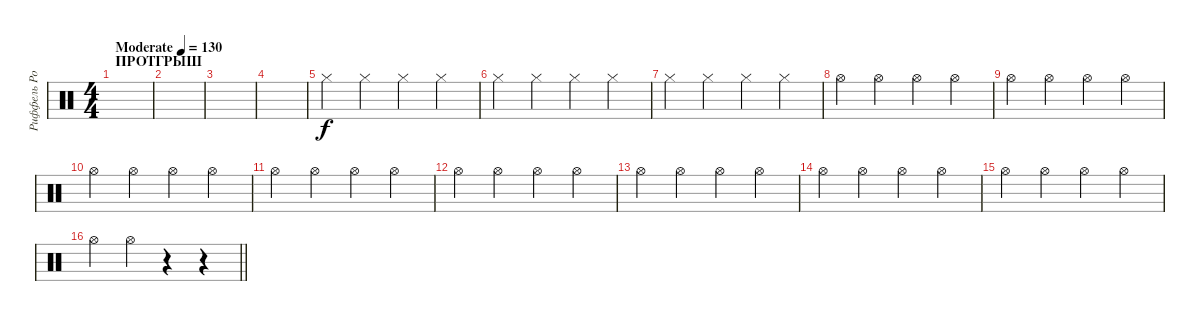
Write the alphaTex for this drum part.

\track ("Риффель Роман(хэты)" "Риффель Ро") {instrument percussion}
\staff {score}
\articulation defaults
\ts (4 4)
\section ("" "ПРОТГРЫШ")
\tempo (130 "Moderate")
\clef neutral
\ks c
|
|
|
|
"Hi-Hat (closed)".4 "Hi-Hat (closed)".4 "Hi-Hat (closed)".4 "Hi-Hat (closed)".4 |
"Hi-Hat (closed)".4 "Hi-Hat (closed)".4 "Hi-Hat (closed)".4 "Hi-Hat (closed)".4 |
"Hi-Hat (closed)".4 "Hi-Hat (closed)".4 "Hi-Hat (closed)".4 "Hi-Hat (closed)".4 |
"Hi-Hat (open)".4 "Hi-Hat (open)".4 "Hi-Hat (open)".4 "Hi-Hat (open)".4 |
"Hi-Hat (open)".4 "Hi-Hat (open)".4 "Hi-Hat (open)".4 "Hi-Hat (open)".4 |
"Hi-Hat (open)".4 "Hi-Hat (open)".4 "Hi-Hat (open)".4 "Hi-Hat (open)".4 |
"Hi-Hat (open)".4 "Hi-Hat (open)".4 "Hi-Hat (open)".4 "Hi-Hat (open)".4 |
"Hi-Hat (open)".4 "Hi-Hat (open)".4 "Hi-Hat (open)".4 "Hi-Hat (open)".4 |
"Hi-Hat (open)".4 "Hi-Hat (open)".4 "Hi-Hat (open)".4 "Hi-Hat (open)".4 |
"Hi-Hat (open)".4 "Hi-Hat (open)".4 "Hi-Hat (open)".4 "Hi-Hat (open)".4 |
"Hi-Hat (open)".4 "Hi-Hat (open)".4 "Hi-Hat (open)".4 "Hi-Hat (open)".4 |
\barLineRight lightlight "Hi-Hat (open)".4 "Hi-Hat (open)".4
r.4 r.4
